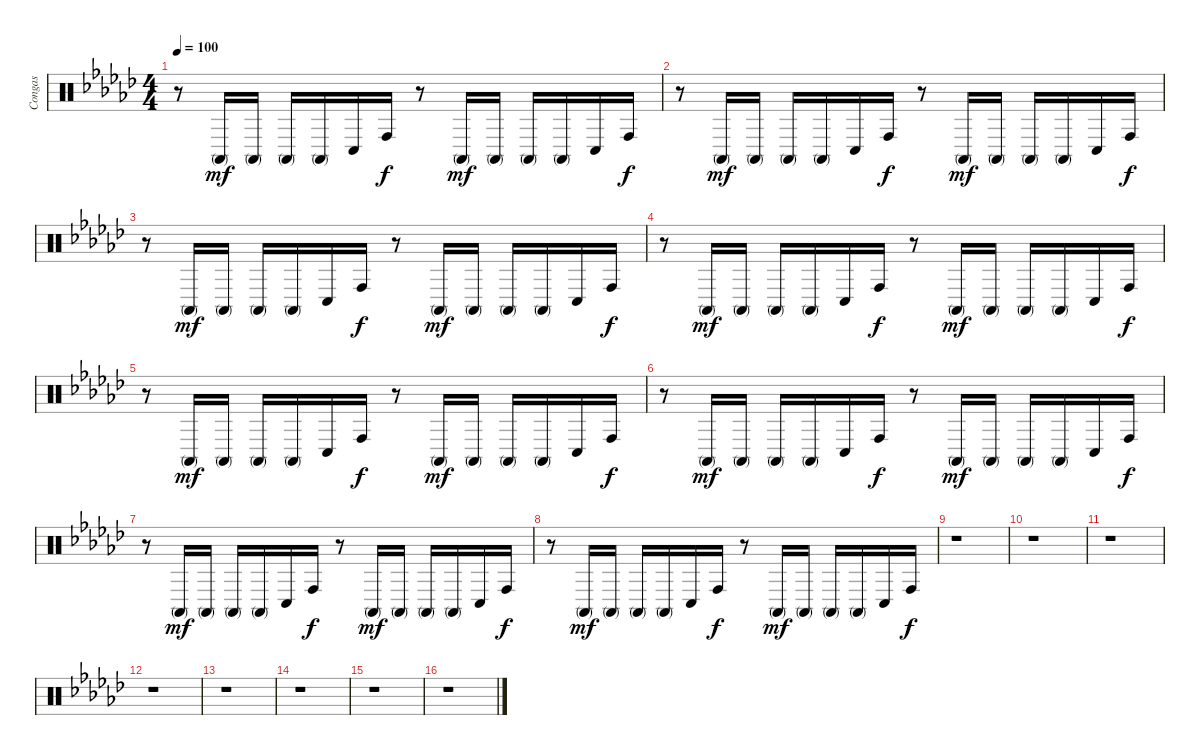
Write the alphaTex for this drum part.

\track ("Congas" "Congas") {instrument percussion}
\staff {score}
\articulation defaults
\ts (4 4)
\tempo 100
\clef neutral
\ks ebminor
r.8{dy f} "Conga high (mute)".16{dy mf} "Conga high (mute)".16 "Conga high (mute)".16 "Conga high (mute)".16 "Conga low (hit)".16 "Conga high (hit)".16{dy f} r.8 "Conga high (mute)".16{dy mf} "Conga high (mute)".16 "Conga high (mute)".16 "Conga high (mute)".16 "Conga low (hit)".16 "Conga high (hit)".16{dy f} |
r.8 "Conga high (mute)".16{dy mf} "Conga high (mute)".16 "Conga high (mute)".16 "Conga high (mute)".16 "Conga low (hit)".16 "Conga high (hit)".16{dy f} r.8 "Conga high (mute)".16{dy mf} "Conga high (mute)".16 "Conga high (mute)".16 "Conga high (mute)".16 "Conga low (hit)".16 "Conga high (hit)".16{dy f} |
r.8 "Conga high (mute)".16{dy mf} "Conga high (mute)".16 "Conga high (mute)".16 "Conga high (mute)".16 "Conga low (hit)".16 "Conga high (hit)".16{dy f} r.8 "Conga high (mute)".16{dy mf} "Conga high (mute)".16 "Conga high (mute)".16 "Conga high (mute)".16 "Conga low (hit)".16 "Conga high (hit)".16{dy f} |
r.8 "Conga high (mute)".16{dy mf} "Conga high (mute)".16 "Conga high (mute)".16 "Conga high (mute)".16 "Conga low (hit)".16 "Conga high (hit)".16{dy f} r.8 "Conga high (mute)".16{dy mf} "Conga high (mute)".16 "Conga high (mute)".16 "Conga high (mute)".16 "Conga low (hit)".16 "Conga high (hit)".16{dy f} |
r.8 "Conga high (mute)".16{dy mf} "Conga high (mute)".16 "Conga high (mute)".16 "Conga high (mute)".16 "Conga low (hit)".16 "Conga high (hit)".16{dy f} r.8 "Conga high (mute)".16{dy mf} "Conga high (mute)".16 "Conga high (mute)".16 "Conga high (mute)".16 "Conga low (hit)".16 "Conga high (hit)".16{dy f} |
r.8 "Conga high (mute)".16{dy mf} "Conga high (mute)".16 "Conga high (mute)".16 "Conga high (mute)".16 "Conga low (hit)".16 "Conga high (hit)".16{dy f} r.8 "Conga high (mute)".16{dy mf} "Conga high (mute)".16 "Conga high (mute)".16 "Conga high (mute)".16 "Conga low (hit)".16 "Conga high (hit)".16{dy f} |
r.8 "Conga high (mute)".16{dy mf} "Conga high (mute)".16 "Conga high (mute)".16 "Conga high (mute)".16 "Conga low (hit)".16 "Conga high (hit)".16{dy f} r.8 "Conga high (mute)".16{dy mf} "Conga high (mute)".16 "Conga high (mute)".16 "Conga high (mute)".16 "Conga low (hit)".16 "Conga high (hit)".16{dy f} |
r.8 "Conga high (mute)".16{dy mf} "Conga high (mute)".16 "Conga high (mute)".16 "Conga high (mute)".16 "Conga low (hit)".16 "Conga high (hit)".16{dy f} r.8 "Conga high (mute)".16{dy mf} "Conga high (mute)".16 "Conga high (mute)".16 "Conga high (mute)".16 "Conga low (hit)".16 "Conga high (hit)".16{dy f} |
r.1 |
r.1 |
r.1 |
r.1 |
r.1 |
r.1 |
r.1 |
r.1
